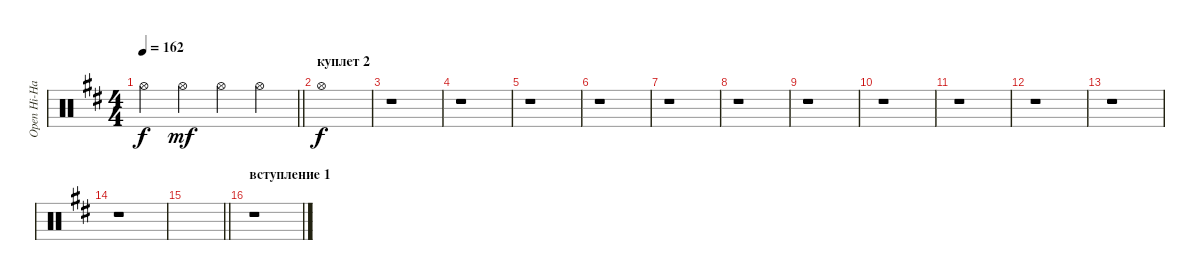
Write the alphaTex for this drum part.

\track ("Open Hi-Hat" "Open Hi-Ha") {instrument percussion}
\staff {score}
\articulation defaults
\ts (4 4)
\tempo 162
\clef neutral
\barLineRight lightlight
\ks bminor "Hi-Hat (open)".4{dy f} "Hi-Hat (open)".4{dy mf} "Hi-Hat (open)".4 "Hi-Hat (open)".4
|
\section ("" "куплет 2")
"Hi-Hat (open)".1{dy f} |
r.1 |
r.1 |
r.1 |
r.1 |
r.1 |
r.1 |
r.1 |
r.1 |
r.1 |
r.1 |
r.1 |
r.1 |
\barLineRight lightlight
|
\section ("" "вступление 1")
r.1
